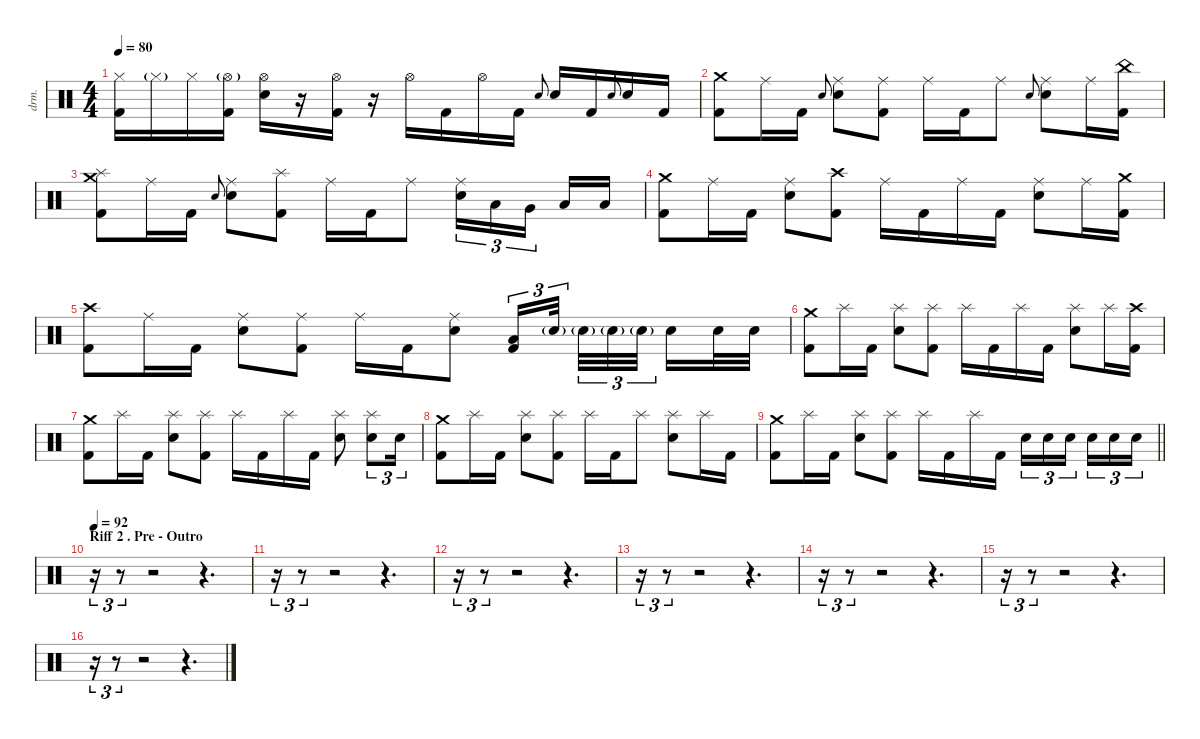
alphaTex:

\defaultSystemsLayout 4
\hideDynamics
\bracketExtendMode nobrackets
\otherSystemsTrackNameOrientation horizontal
\track ("Percussions" "drm.") {instrument percussion}
\staff {score}
\articulation defaults
\ts (4 4)
\tempo 80
\clef neutral
\ks c
("Kick (hit) 2" "Hi-Hat (closed)").16{dy f beam Down} "Hi-Hat (closed)"{g}.16{dy ff beam Down} "Hi-Hat (closed)".16{dy f beam Down} ("Kick (hit) 2" "Hi-Hat (open)"{g}).16{beam Down} ("Snare (hit) 2" "Hi-Hat (open)").16{beam Down} r.16{beam Down} ("Kick (hit) 2" "Hi-Hat (open)").16{beam Down} r.16{beam Down} "Hi-Hat (open)".16{beam Down} "Kick (hit) 2".16{beam Down} "Hi-Hat (open)".16{dy fff beam Down} "Kick (hit) 2".16{beam Down} "Electric Snare (hit)".8{gr onbeat dy ff beam Up} "Snare (hit) 2".16{dy f beam Up} "Kick (hit) 2".16{dy fff beam Up} "Electric Snare (hit)".8{gr onbeat dy ff beam Up} "Snare (hit) 2".16{dy fff beam Up} "Kick (hit) 2".16{beam Up} |
("Crash medium (hit)" "Kick (hit) 2").8{beam Down} "Ride (middle)".16{beam Down} "Kick (hit) 2".16{beam Down} "Electric Snare (hit)".8{gr onbeat dy ff beam Up} ("Snare (hit) 2" "Ride (middle)").8{dy fff beam Down} ("Kick (hit) 2" "Ride (middle)").8{beam Down} "Ride (middle)".16{beam Down} "Kick (hit) 2".16{beam Down} "Ride (middle)".8{beam Down} "Electric Snare (hit)".8{gr onbeat dy ff beam Up} ("Snare (hit) 2" "Ride (middle)").8{dy fff beam Down} "Ride (middle)".16{beam Down} ("China (hit)" "Kick (hit) 2").16{beam Down} |
("Splash (hit)" "Crash medium (hit)" "Kick (hit) 2").8{beam Down} "Ride (middle)".16{beam Down} "Kick (hit) 2".16{beam Down} "Electric Snare (hit)".8{gr onbeat dy ff beam Up} ("Snare (hit) 2" "Ride (middle)").8{dy fff beam Down} ("Splash (hit)" "Kick (hit) 2").8{beam Down} "Ride (middle)".16{beam Down} "Kick (hit) 2".16{beam Down} "Ride (middle)".8{beam Down} ("Snare (hit) 2" "Ride (middle)").16{tu (3 2) beam Down} "Low Tom (hit)".16{tu (3 2) beam Down} "Very Low Tom (hit)".16{tu (3 2) beam Down} "Low Floor Tom (hit)".16{beam Up} "Low Floor Tom (hit)".16{beam Up} |
("Crash medium (hit)" "Kick (hit) 2").8{beam Down} "Ride (middle)".16{beam Down} "Kick (hit) 2".16{beam Down} ("Snare (hit) 2" "Ride (middle)").8{beam Down} ("Crash high (hit)" "Kick (hit) 2").8{beam Down} "Ride (middle)".16{beam Down} "Kick (hit) 2".16{beam Down} "Ride (middle)".16{beam Down} "Kick (hit) 2".16{beam Down} ("Snare (hit) 2" "Ride (middle)").8{beam Down} "Ride (middle)".16{beam Down} ("Crash medium (hit)" "Kick (hit) 2").16{beam Down} |
("Crash high (hit)" "Kick (hit) 2").8{beam Down} "Ride (middle)".16{beam Down} "Kick (hit) 2".16{beam Down} ("Snare (hit) 2" "Ride (middle)").8{beam Down} ("Kick (hit) 2" "Ride (middle)").8{beam Down} "Ride (middle)".16{beam Down} "Kick (hit) 2".16{beam Down} ("Snare (hit) 2" "Ride (middle)").8{beam Down} ("Low Tom (hit)" "Kick (hit) 2").16{tu (3 2) dy mf beam Up} "Snare (hit) 2"{g}.32{tu (3 2) dy mp beam Up} "Snare (hit) 2"{g}.32{tu (3 2) beam Down} "Snare (hit) 2"{g}.32{tu (3 2) beam Down} "Snare (hit) 2"{g}.32{tu (3 2) beam Down} "Snare (hit) 2".16{dy fff beam Down} "Snare (hit) 2".32{beam Down} "Snare (hit) 2".32{beam Down} |
("Crash medium (hit)" "Kick (hit) 2").8{beam Down} "Splash (hit)".16{beam Down} "Kick (hit) 2".16{beam Down} ("Splash (hit)" "Snare (hit) 2").8{beam Down} ("Splash (hit)" "Kick (hit) 2").8{beam Down} "Splash (hit)".16{beam Down} "Kick (hit) 2".16{beam Down} "Splash (hit)".16{beam Down} "Kick (hit) 2".16{beam Down} ("Splash (hit)" "Snare (hit) 2").8{beam Down} "Splash (hit)".16{beam Down} ("Crash high (hit)" "Kick (hit) 2").16{beam Down} |
("Crash medium (hit)" "Kick (hit) 2").8{beam Down} "Splash (hit)".16{beam Down} "Kick (hit) 2".16{beam Down} ("Splash (hit)" "Snare (hit) 2").8{beam Down} ("Splash (hit)" "Kick (hit) 2").8{beam Down} "Splash (hit)".16{beam Down} "Kick (hit) 2".16{beam Down} "Splash (hit)".16{beam Down} "Kick (hit) 2".16{beam Down} ("Splash (hit)" "Snare (hit) 2").8{beam Down} ("Splash (hit)" "Snare (hit) 2").8{tu (3 2) beam Down} "Snare (hit) 2".16{tu (3 2) beam Down} |
("Crash medium (hit)" "Kick (hit) 2").8{beam Down} "Splash (hit)".16{beam Down} "Kick (hit) 2".16{beam Down} ("Splash (hit)" "Snare (hit) 2").8{beam Down} ("Splash (hit)" "Kick (hit) 2").8{beam Down} "Splash (hit)".16{beam Down} "Kick (hit) 2".16{beam Down} "Splash (hit)".8{beam Down} ("Splash (hit)" "Snare (hit) 2").8{beam Down} "Splash (hit)".16{beam Down} "Kick (hit) 2".16{beam Down} |
\barLineRight lightlight
("Crash medium (hit)" "Kick (hit) 2").8{beam Down} "Splash (hit)".16{beam Down} "Kick (hit) 2".16{beam Down} ("Splash (hit)" "Snare (hit) 2").8{beam Down} ("Splash (hit)" "Kick (hit) 2").8{beam Down} "Splash (hit)".16{beam Down} "Kick (hit) 2".16{beam Down} "Splash (hit)".16{beam Down} "Kick (hit) 2".16{beam Down} "Snare (hit) 2".16{tu (3 2) beam Down} "Snare (hit) 2".16{tu (3 2) beam Down} "Snare (hit) 2".16{tu (3 2) beam Down} "Snare (hit) 2".16{tu (3 2) beam Down} "Snare (hit) 2".16{tu (3 2) beam Down} "Snare (hit) 2".16{tu (3 2) beam Down} |
\section ("" "Riff 2 . Pre - Outro")
\tempo 92
r.16{tu (3 2) beam Down} r.8{tu (3 2) beam Down} r.2{beam Down} r.4{d beam Down} |
r.16{tu (3 2) beam Down} r.8{tu (3 2) beam Down} r.2{beam Down} r.4{d beam Down} |
r.16{tu (3 2) beam Down} r.8{tu (3 2) beam Down} r.2{beam Down} r.4{d beam Down} |
r.16{tu (3 2) beam Down} r.8{tu (3 2) beam Down} r.2{beam Down} r.4{d beam Down} |
r.16{tu (3 2) beam Down} r.8{tu (3 2) beam Down} r.2{beam Down} r.4{d beam Down} |
r.16{tu (3 2) beam Down} r.8{tu (3 2) beam Down} r.2{beam Down} r.4{d beam Down} |
r.16{tu (3 2) beam Down} r.8{tu (3 2) beam Down} r.2{beam Down} r.4{d beam Down}
